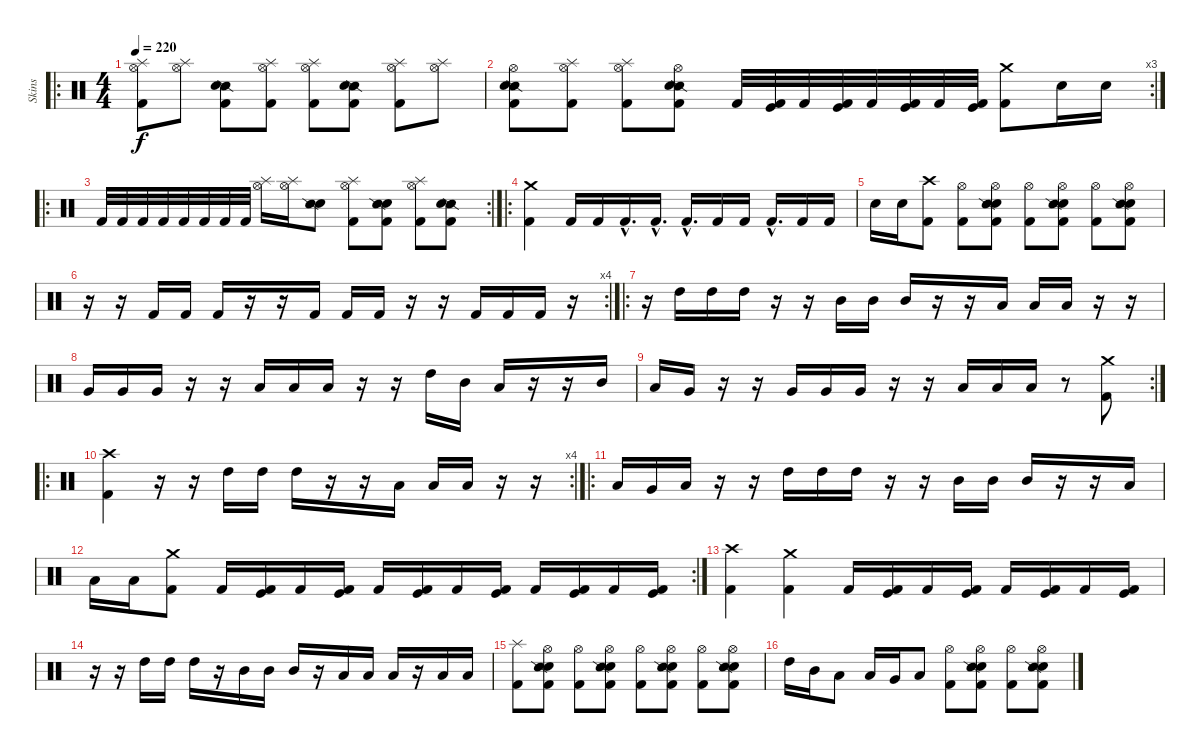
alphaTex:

\track ("Skins" "Skins") {instrument percussion}
\staff {score}
\articulation defaults
\ro
\ts (4 4)
\tempo 220
\clef neutral
\ks c
("Splash (hit)" "Hi-Hat (open)" "Kick (hit) 2").8{dy f} ("Splash (hit)" "Hi-Hat (open)").8 ("Snare (side stick) 2" "Electric Snare (hit)" "Kick (hit) 2").8 ("Splash (hit)" "Hi-Hat (open)" "Kick (hit) 2").8 ("Splash (hit)" "Hi-Hat (open)" "Kick (hit) 2").8 ("Snare (side stick) 2" "Electric Snare (hit)" "Kick (hit) 2").8 ("Splash (hit)" "Hi-Hat (open)" "Kick (hit) 2").8 ("Splash (hit)" "Hi-Hat (open)").8 |
\rc 3
("Hi-Hat (open)" "Snare (side stick) 2" "Electric Snare (hit)" "Kick (hit) 2").8 ("Splash (hit)" "Hi-Hat (open)" "Kick (hit) 2").8 ("Splash (hit)" "Hi-Hat (open)" "Kick (hit) 2").8 ("Hi-Hat (open)" "Snare (side stick) 2" "Electric Snare (hit)" "Kick (hit) 2").8 "Kick (hit) 2".32 ("Kick (hit)" "Kick (hit) 2").32 "Kick (hit) 2".32 ("Kick (hit)" "Kick (hit) 2").32 "Kick (hit) 2".32 ("Kick (hit)" "Kick (hit) 2").32 "Kick (hit) 2".32 ("Kick (hit)" "Kick (hit) 2").32 ("Crash medium (hit)" "Kick (hit) 2").8 "Electric Snare (hit)".16 "Electric Snare (hit)".16 |
\ro
\rc 2 "Kick (hit) 2".32 "Kick (hit) 2".32 "Kick (hit) 2".32 "Kick (hit) 2".32 "Kick (hit) 2".32 "Kick (hit) 2".32 "Kick (hit) 2".32 "Kick (hit) 2".32
("Splash (hit)" "Hi-Hat (open)").16 ("Splash (hit)" "Hi-Hat (open)").16 ("Electric Snare (hit)" "Snare (side stick) 2").8 ("Splash (hit)" "Hi-Hat (open)" "Kick (hit) 2").8 ("Electric Snare (hit)" "Kick (hit) 2" "Snare (side stick) 2").8 ("Splash (hit)" "Hi-Hat (open)" "Kick (hit) 2").8 ("Snare (side stick) 2" "Electric Snare (hit)" "Kick (hit) 2").8 |
\ro
("Crash medium (hit)" "Kick (hit) 2").4 "Kick (hit) 2".16 "Kick (hit) 2".16 "Kick (hit) 2"{hac}.16{d} "Kick (hit) 2"{hac}.16{d} "Kick (hit) 2"{hac}.16{d} "Kick (hit) 2".16 "Kick (hit) 2".16 "Kick (hit) 2"{hac}.16{d} "Kick (hit) 2".16 "Kick (hit) 2".16 |
"Electric Snare (hit)".16 "Electric Snare (hit)".16 ("Crash high (hit)" "Kick (hit) 2").8 ("Hi-Hat (open)" "Kick (hit) 2").8 ("Hi-Hat (open)" "Electric Snare (hit)" "Snare (side stick) 2" "Kick (hit) 2").8 ("Hi-Hat (open)" "Kick (hit) 2").8 ("Hi-Hat (open)" "Electric Snare (hit)" "Snare (side stick) 2" "Kick (hit) 2").8 ("Hi-Hat (open)" "Kick (hit) 2").8 ("Hi-Hat (open)" "Electric Snare (hit)" "Snare (side stick) 2" "Kick (hit) 2").8 |
\rc 4
r.16 r.16 "Kick (hit) 2".16 "Kick (hit) 2".16 "Kick (hit) 2".16 r.16 r.16 "Kick (hit) 2".16 "Kick (hit) 2".16 "Kick (hit) 2".16 r.16 r.16 "Kick (hit) 2".16 "Kick (hit) 2".16 "Kick (hit) 2".16 r.16 |
\ro
r.16 "High Tom (hit)".16 "High Tom (hit)".16 "High Tom (hit)".16 r.16 r.16 "Mid Tom (hit)".16 "Mid Tom (hit)".16 "Mid Tom (hit)".16 r.16 r.16 "Low Tom (hit)".16 "Low Tom (hit)".16 "Low Tom (hit)".16 r.16 r.16 |
"Very Low Tom (hit)".16 "Very Low Tom (hit)".16 "Very Low Tom (hit)".16 r.16 r.16 "Low Floor Tom (hit)".16 "Low Floor Tom (hit)".16 "Low Floor Tom (hit)".16 r.16 r.16 "High Tom (hit)".16 "Mid Tom (hit)".16 "Low Tom (hit)".16 r.16 r.16 "Mid Tom (hit)".16 |
\rc 2 "Low Tom (hit)".16 "Very Low Tom (hit)".16
r.16 r.16 "Very Low Tom (hit)".16 "Very Low Tom (hit)".16 "Very Low Tom (hit)".16 r.16 r.16 "Low Floor Tom (hit)".16 "Low Floor Tom (hit)".16 "Low Floor Tom (hit)".16 r.8 ("Crash medium (hit)" "Kick (hit) 2").8 |
\ro
\rc 4
("Crash high (hit)" "Kick (hit) 2").4 r.16 r.16 "High Tom (hit)".16 "High Tom (hit)".16 "High Tom (hit)".16 r.16 r.16 "Low Tom (hit)".16 "Low Tom (hit)".16 "Low Tom (hit)".16 r.16 r.16 |
\ro "Low Tom (hit)".16 "Very Low Tom (hit)".16 "Low Floor Tom (hit)".16
r.16 r.16 "High Tom (hit)".16 "High Tom (hit)".16 "High Tom (hit)".16 r.16 r.16 "Mid Tom (hit)".16 "Mid Tom (hit)".16 "Mid Tom (hit)".16 r.16 r.16 "Low Tom (hit)".16 |
\rc 2 "Low Tom (hit)".16 "Low Tom (hit)".16
("Crash medium (hit)" "Kick (hit) 2").8 "Kick (hit) 2".16 ("Kick (hit)" "Kick (hit) 2").16 "Kick (hit) 2".16 ("Kick (hit)" "Kick (hit) 2").16 "Kick (hit) 2".16 ("Kick (hit)" "Kick (hit) 2").16 "Kick (hit) 2".16 ("Kick (hit)" "Kick (hit) 2").16 "Kick (hit) 2".16 ("Kick (hit)" "Kick (hit) 2").16 "Kick (hit) 2".16 ("Kick (hit)" "Kick (hit) 2").16 |
("Crash high (hit)" "Kick (hit) 2").4 ("Crash medium (hit)" "Kick (hit) 2").4 "Kick (hit) 2".16 ("Kick (hit)" "Kick (hit) 2").16 "Kick (hit) 2".16 ("Kick (hit)" "Kick (hit) 2").16 "Kick (hit) 2".16 ("Kick (hit)" "Kick (hit) 2").16 "Kick (hit) 2".16 ("Kick (hit)" "Kick (hit) 2").16 |
r.16 r.16 "High Tom (hit)".16 "High Tom (hit)".16 "High Tom (hit)".16 r.16 "Mid Tom (hit)".16 "Mid Tom (hit)".16 "Mid Tom (hit)".16 r.16 "Low Tom (hit)".16 "Low Tom (hit)".16 "Low Tom (hit)".16 r.16 "Low Floor Tom (hit)".16 "Low Floor Tom (hit)".16 |
("Splash (hit)" "Kick (hit) 2").8 ("Hi-Hat (open)" "Electric Snare (hit)" "Snare (side stick) 2" "Kick (hit) 2").8 ("Hi-Hat (open)" "Kick (hit) 2").8 ("Hi-Hat (open)" "Electric Snare (hit)" "Snare (side stick) 2" "Kick (hit) 2").8 ("Hi-Hat (open)" "Kick (hit) 2").8 ("Hi-Hat (open)" "Electric Snare (hit)" "Snare (side stick) 2" "Kick (hit) 2").8 ("Hi-Hat (open)" "Kick (hit) 2").8 ("Hi-Hat (open)" "Electric Snare (hit)" "Snare (side stick) 2" "Kick (hit) 2").8 |
"High Tom (hit)".16 "Mid Tom (hit)".16 "Low Tom (hit)".8 "Low Tom (hit)".16 "Very Low Tom (hit)".16 "Low Floor Tom (hit)".8 ("Hi-Hat (open)" "Kick (hit) 2").8 ("Hi-Hat (open)" "Electric Snare (hit)" "Snare (side stick) 2" "Kick (hit) 2").8 ("Hi-Hat (open)" "Kick (hit) 2").8 ("Hi-Hat (open)" "Electric Snare (hit)" "Snare (side stick) 2" "Kick (hit) 2").8
